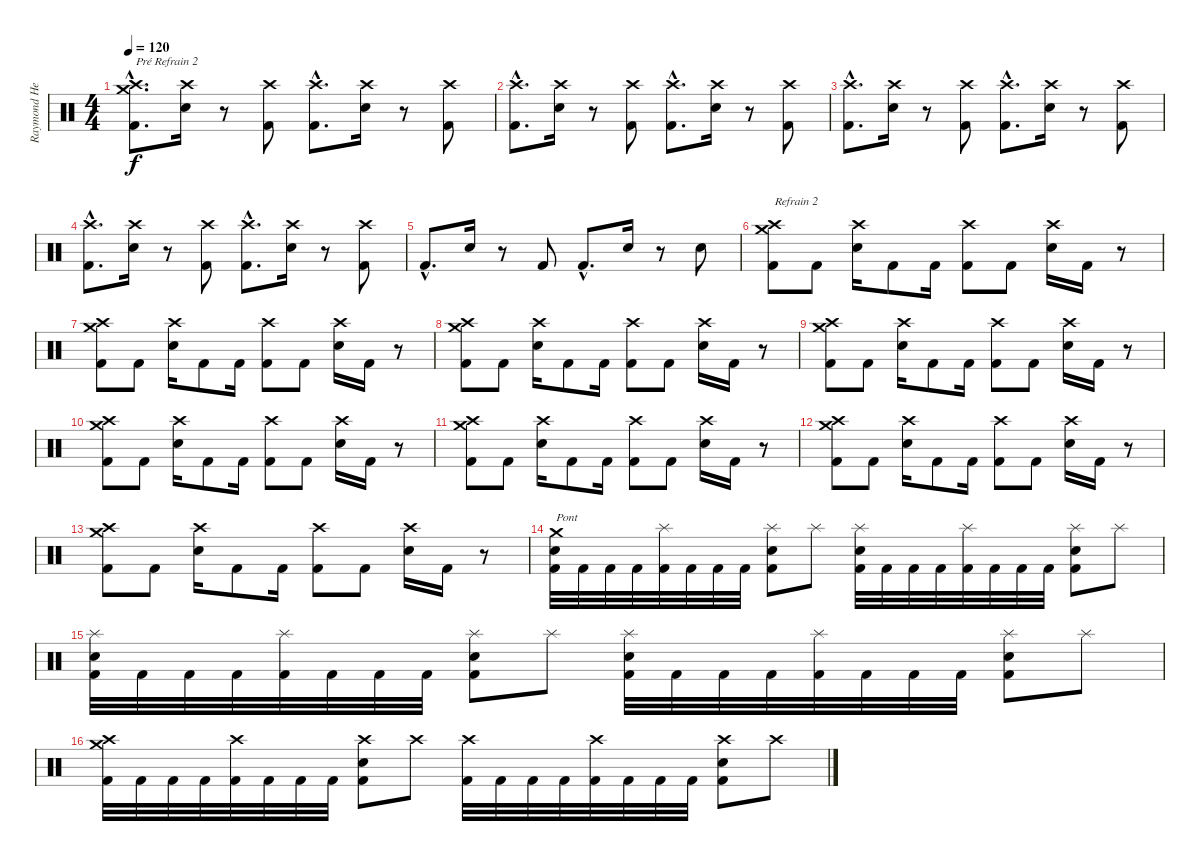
\track ("Raymond Herrera" "Raymond He") {instrument percussion}
\staff {score}
\articulation defaults
\ts (4 4)
\tempo 120
\clef neutral
\ks c
("Crash medium (hit)"{hac} "Crash high (hit)"{hac} "Kick (hit) 2"{hac}).8{d txt "Pré Refrain 2" dy f} ("Crash high (hit)" "Electric Snare (hit)").16 r.8 ("Crash high (hit)" "Kick (hit) 2").8 ("Crash high (hit)"{hac} "Kick (hit) 2"{hac}).8{d} ("Crash high (hit)" "Electric Snare (hit)").16 r.8 ("Crash high (hit)" "Kick (hit) 2").8 |
("Crash high (hit)"{hac} "Kick (hit) 2"{hac}).8{d} ("Crash high (hit)" "Electric Snare (hit)").16 r.8 ("Crash high (hit)" "Kick (hit) 2").8 ("Crash high (hit)"{hac} "Kick (hit) 2"{hac}).8{d} ("Crash high (hit)" "Electric Snare (hit)").16 r.8 ("Crash high (hit)" "Kick (hit) 2").8 |
("Crash high (hit)"{hac} "Kick (hit) 2"{hac}).8{d} ("Crash high (hit)" "Electric Snare (hit)").16 r.8 ("Crash high (hit)" "Kick (hit) 2").8 ("Crash high (hit)"{hac} "Kick (hit) 2"{hac}).8{d} ("Crash high (hit)" "Electric Snare (hit)").16 r.8 ("Crash high (hit)" "Kick (hit) 2").8 |
("Crash high (hit)"{hac} "Kick (hit) 2"{hac}).8{d} ("Crash high (hit)" "Electric Snare (hit)").16 r.8 ("Crash high (hit)" "Kick (hit) 2").8 ("Crash high (hit)"{hac} "Kick (hit) 2"{hac}).8{d} ("Crash high (hit)" "Electric Snare (hit)").16 r.8 ("Crash high (hit)" "Kick (hit) 2").8 |
"Kick (hit) 2"{hac}.8{d} "Electric Snare (hit)".16 r.8 "Kick (hit) 2".8 "Kick (hit) 2"{hac}.8{d} "Electric Snare (hit)".16 r.8 "Electric Snare (hit)".8 |
("Crash medium (hit)" "Crash high (hit)" "Kick (hit) 2").8{txt "Refrain 2"} "Kick (hit) 2".8 ("Crash high (hit)" "Electric Snare (hit)").16 "Kick (hit) 2".8 "Kick (hit) 2".16 ("Crash high (hit)" "Kick (hit) 2").8 "Kick (hit) 2".8 ("Crash high (hit)" "Electric Snare (hit)").16 "Kick (hit) 2".16 r.8 |
("Crash medium (hit)" "Crash high (hit)" "Kick (hit) 2").8 "Kick (hit) 2".8 ("Crash high (hit)" "Electric Snare (hit)").16 "Kick (hit) 2".8 "Kick (hit) 2".16 ("Crash high (hit)" "Kick (hit) 2").8 "Kick (hit) 2".8 ("Crash high (hit)" "Electric Snare (hit)").16 "Kick (hit) 2".16 r.8 |
("Crash medium (hit)" "Crash high (hit)" "Kick (hit) 2").8 "Kick (hit) 2".8 ("Crash high (hit)" "Electric Snare (hit)").16 "Kick (hit) 2".8 "Kick (hit) 2".16 ("Crash high (hit)" "Kick (hit) 2").8 "Kick (hit) 2".8 ("Crash high (hit)" "Electric Snare (hit)").16 "Kick (hit) 2".16 r.8 |
("Crash medium (hit)" "Crash high (hit)" "Kick (hit) 2").8 "Kick (hit) 2".8 ("Crash high (hit)" "Electric Snare (hit)").16 "Kick (hit) 2".8 "Kick (hit) 2".16 ("Crash high (hit)" "Kick (hit) 2").8 "Kick (hit) 2".8 ("Crash high (hit)" "Electric Snare (hit)").16 "Kick (hit) 2".16 r.8 |
("Crash medium (hit)" "Crash high (hit)" "Kick (hit) 2").8 "Kick (hit) 2".8 ("Crash high (hit)" "Electric Snare (hit)").16 "Kick (hit) 2".8 "Kick (hit) 2".16 ("Crash high (hit)" "Kick (hit) 2").8 "Kick (hit) 2".8 ("Crash high (hit)" "Electric Snare (hit)").16 "Kick (hit) 2".16 r.8 |
("Crash medium (hit)" "Crash high (hit)" "Kick (hit) 2").8 "Kick (hit) 2".8 ("Crash high (hit)" "Electric Snare (hit)").16 "Kick (hit) 2".8 "Kick (hit) 2".16 ("Crash high (hit)" "Kick (hit) 2").8 "Kick (hit) 2".8 ("Crash high (hit)" "Electric Snare (hit)").16 "Kick (hit) 2".16 r.8 |
("Crash medium (hit)" "Crash high (hit)" "Kick (hit) 2").8 "Kick (hit) 2".8 ("Crash high (hit)" "Electric Snare (hit)").16 "Kick (hit) 2".8 "Kick (hit) 2".16 ("Crash high (hit)" "Kick (hit) 2").8 "Kick (hit) 2".8 ("Crash high (hit)" "Electric Snare (hit)").16 "Kick (hit) 2".16 r.8 |
("Crash medium (hit)" "Crash high (hit)" "Kick (hit) 2").8 "Kick (hit) 2".8 ("Crash high (hit)" "Electric Snare (hit)").16 "Kick (hit) 2".8 "Kick (hit) 2".16 ("Crash high (hit)" "Kick (hit) 2").8 "Kick (hit) 2".8 ("Crash high (hit)" "Electric Snare (hit)").16 "Kick (hit) 2".16 r.8 |
("Crash medium (hit)" "Electric Snare (hit)" "Kick (hit) 2").32{txt "Pont"} "Kick (hit) 2".32 "Kick (hit) 2".32 "Kick (hit) 2".32 ("Splash (hit)" "Kick (hit) 2").32 "Kick (hit) 2".32 "Kick (hit) 2".32 "Kick (hit) 2".32 ("Splash (hit)" "Electric Snare (hit)" "Kick (hit) 2").8 "Splash (hit)".8 ("Splash (hit)" "Electric Snare (hit)" "Kick (hit) 2").32 "Kick (hit) 2".32 "Kick (hit) 2".32 "Kick (hit) 2".32 ("Splash (hit)" "Kick (hit) 2").32 "Kick (hit) 2".32 "Kick (hit) 2".32 "Kick (hit) 2".32 ("Splash (hit)" "Electric Snare (hit)" "Kick (hit) 2").8 "Splash (hit)".8 |
("Splash (hit)" "Electric Snare (hit)" "Kick (hit) 2").32 "Kick (hit) 2".32 "Kick (hit) 2".32 "Kick (hit) 2".32 ("Splash (hit)" "Kick (hit) 2").32 "Kick (hit) 2".32 "Kick (hit) 2".32 "Kick (hit) 2".32 ("Splash (hit)" "Electric Snare (hit)" "Kick (hit) 2").8 "Splash (hit)".8 ("Splash (hit)" "Electric Snare (hit)" "Kick (hit) 2").32 "Kick (hit) 2".32 "Kick (hit) 2".32 "Kick (hit) 2".32 ("Splash (hit)" "Kick (hit) 2").32 "Kick (hit) 2".32 "Kick (hit) 2".32 "Kick (hit) 2".32 ("Splash (hit)" "Electric Snare (hit)" "Kick (hit) 2").8 "Splash (hit)".8 |
("Crash medium (hit)" "Crash high (hit)" "Kick (hit) 2").32 "Kick (hit) 2".32 "Kick (hit) 2".32 "Kick (hit) 2".32 ("Crash high (hit)" "Kick (hit) 2").32 "Kick (hit) 2".32 "Kick (hit) 2".32 "Kick (hit) 2".32 ("Crash high (hit)" "Electric Snare (hit)" "Kick (hit) 2").8 "Crash high (hit)".8 ("Crash high (hit)" "Kick (hit) 2").32 "Kick (hit) 2".32 "Kick (hit) 2".32 "Kick (hit) 2".32 ("Crash high (hit)" "Kick (hit) 2").32 "Kick (hit) 2".32 "Kick (hit) 2".32 "Kick (hit) 2".32 ("Crash high (hit)" "Electric Snare (hit)" "Kick (hit) 2").8 "Crash high (hit)".8
